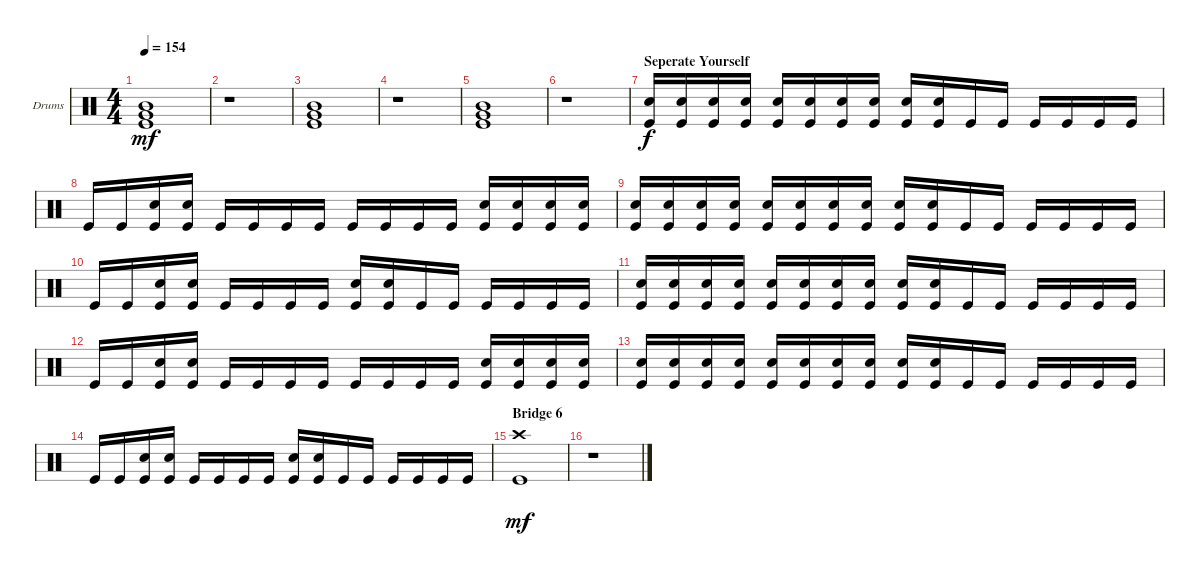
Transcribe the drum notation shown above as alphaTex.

\defaultSystemsLayout 4
\bracketExtendMode groupsimilarinstruments
\firstSystemTrackNameOrientation horizontal
\otherSystemsTrackNameOrientation horizontal
\track ("Drums" "Drums") {instrument percussion}
\staff {score}
\articulation defaults
\ts (4 4)
\tempo 154
\clef neutral
\ks c
("Kick (hit)" "Very Low Tom (hit)" "Mid Tom (hit)").1{dy mf} |
r.1 |
("Kick (hit)" "Very Low Tom (hit)" "Mid Tom (hit)").1 |
r.1 |
("Kick (hit)" "Very Low Tom (hit)" "Mid Tom (hit)").1 |
r.1 |
\section ("" "Seperate Yourself")
("Snare (hit) 2" "Kick (hit)").16{dy f} ("Snare (hit) 2" "Kick (hit)").16 ("Snare (hit) 2" "Kick (hit)").16 ("Snare (hit) 2" "Kick (hit)").16 ("Snare (hit) 2" "Kick (hit)").16 ("Snare (hit) 2" "Kick (hit)").16 ("Snare (hit) 2" "Kick (hit)").16 ("Snare (hit) 2" "Kick (hit)").16 ("Snare (hit) 2" "Kick (hit)").16 ("Snare (hit) 2" "Kick (hit)").16 "Kick (hit)".16 "Kick (hit)".16 "Kick (hit)".16 "Kick (hit)".16 "Kick (hit)".16 "Kick (hit)".16 |
"Kick (hit)".16 "Kick (hit)".16 ("Snare (hit) 2" "Kick (hit)").16 ("Snare (hit) 2" "Kick (hit)").16 "Kick (hit)".16 "Kick (hit)".16 "Kick (hit)".16 "Kick (hit)".16 "Kick (hit)".16 "Kick (hit)".16 "Kick (hit)".16 "Kick (hit)".16 ("Snare (hit) 2" "Kick (hit)").16 ("Snare (hit) 2" "Kick (hit)").16 ("Snare (hit) 2" "Kick (hit)").16 ("Snare (hit) 2" "Kick (hit)").16 |
("Snare (hit) 2" "Kick (hit)").16 ("Snare (hit) 2" "Kick (hit)").16 ("Snare (hit) 2" "Kick (hit)").16 ("Snare (hit) 2" "Kick (hit)").16 ("Snare (hit) 2" "Kick (hit)").16 ("Snare (hit) 2" "Kick (hit)").16 ("Snare (hit) 2" "Kick (hit)").16 ("Snare (hit) 2" "Kick (hit)").16 ("Snare (hit) 2" "Kick (hit)").16 ("Snare (hit) 2" "Kick (hit)").16 "Kick (hit)".16 "Kick (hit)".16 "Kick (hit)".16 "Kick (hit)".16 "Kick (hit)".16 "Kick (hit)".16 |
"Kick (hit)".16 "Kick (hit)".16 ("Snare (hit) 2" "Kick (hit)").16 ("Snare (hit) 2" "Kick (hit)").16 "Kick (hit)".16 "Kick (hit)".16 "Kick (hit)".16 "Kick (hit)".16 ("Snare (hit) 2" "Kick (hit)").16 ("Snare (hit) 2" "Kick (hit)").16 "Kick (hit)".16 "Kick (hit)".16 "Kick (hit)".16 "Kick (hit)".16 "Kick (hit)".16 "Kick (hit)".16 |
("Snare (hit) 2" "Kick (hit)").16 ("Snare (hit) 2" "Kick (hit)").16 ("Snare (hit) 2" "Kick (hit)").16 ("Snare (hit) 2" "Kick (hit)").16 ("Snare (hit) 2" "Kick (hit)").16 ("Snare (hit) 2" "Kick (hit)").16 ("Snare (hit) 2" "Kick (hit)").16 ("Snare (hit) 2" "Kick (hit)").16 ("Snare (hit) 2" "Kick (hit)").16 ("Snare (hit) 2" "Kick (hit)").16 "Kick (hit)".16 "Kick (hit)".16 "Kick (hit)".16 "Kick (hit)".16 "Kick (hit)".16 "Kick (hit)".16 |
"Kick (hit)".16 "Kick (hit)".16 ("Snare (hit) 2" "Kick (hit)").16 ("Snare (hit) 2" "Kick (hit)").16 "Kick (hit)".16 "Kick (hit)".16 "Kick (hit)".16 "Kick (hit)".16 "Kick (hit)".16 "Kick (hit)".16 "Kick (hit)".16 "Kick (hit)".16 ("Snare (hit) 2" "Kick (hit)").16 ("Snare (hit) 2" "Kick (hit)").16 ("Snare (hit) 2" "Kick (hit)").16 ("Snare (hit) 2" "Kick (hit)").16 |
("Snare (hit) 2" "Kick (hit)").16 ("Snare (hit) 2" "Kick (hit)").16 ("Snare (hit) 2" "Kick (hit)").16 ("Snare (hit) 2" "Kick (hit)").16 ("Snare (hit) 2" "Kick (hit)").16 ("Snare (hit) 2" "Kick (hit)").16 ("Snare (hit) 2" "Kick (hit)").16 ("Snare (hit) 2" "Kick (hit)").16 ("Snare (hit) 2" "Kick (hit)").16 ("Snare (hit) 2" "Kick (hit)").16 "Kick (hit)".16 "Kick (hit)".16 "Kick (hit)".16 "Kick (hit)".16 "Kick (hit)".16 "Kick (hit)".16 |
"Kick (hit)".16 "Kick (hit)".16 ("Snare (hit) 2" "Kick (hit)").16 ("Snare (hit) 2" "Kick (hit)").16 "Kick (hit)".16 "Kick (hit)".16 "Kick (hit)".16 "Kick (hit)".16 ("Snare (hit) 2" "Kick (hit)").16 ("Snare (hit) 2" "Kick (hit)").16 "Kick (hit)".16 "Kick (hit)".16 "Kick (hit)".16 "Kick (hit)".16 "Kick (hit)".16 "Kick (hit)".16 |
\section ("" "Bridge 6")
("Kick (hit)" "Crash high (hit)").1{dy mf} |
r.1
